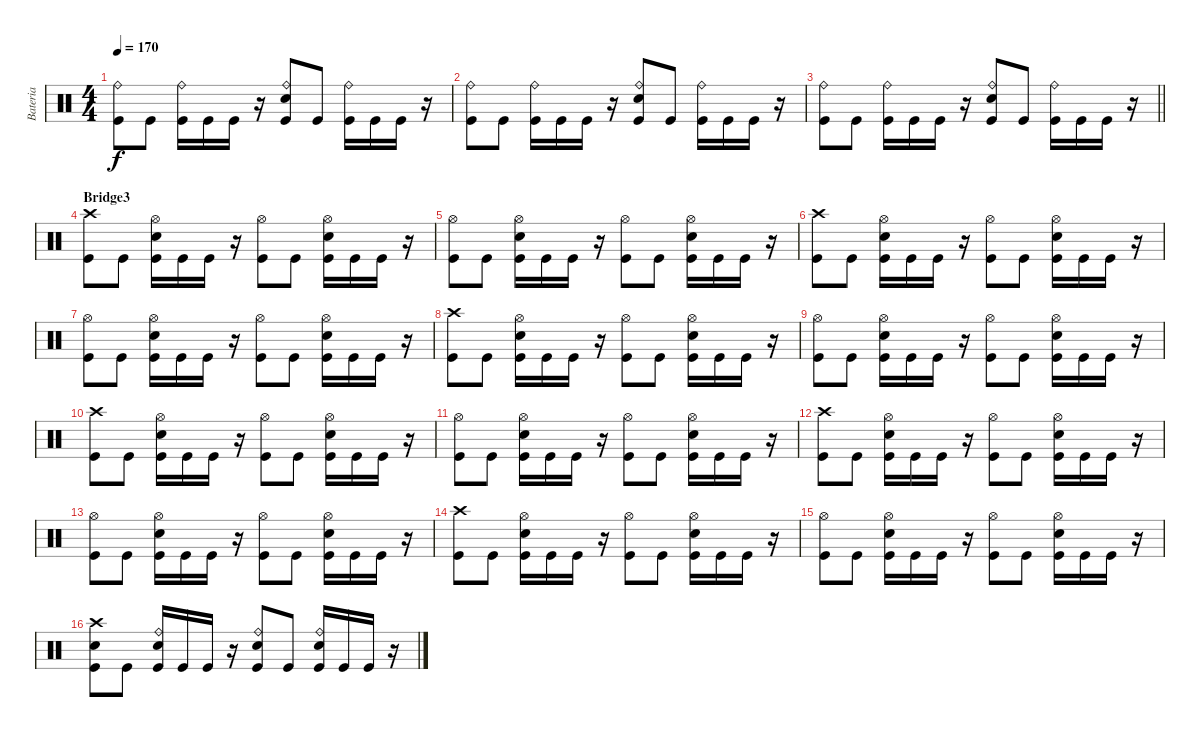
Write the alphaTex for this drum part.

\track ("Bateria" "Bateria") {instrument percussion}
\staff {score}
\articulation defaults
\ts (4 4)
\tempo 170
\clef neutral
\ks c
("Kick (hit)" "Ride (bell)").8{dy f} "Kick (hit)".8 ("Kick (hit)" "Ride (bell)").16 "Kick (hit)".16 "Kick (hit)".16 r.16 ("Snare (hit) 2" "Kick (hit)" "Ride (bell)").8 "Kick (hit)".8 ("Kick (hit)" "Ride (bell)").16 "Kick (hit)".16 "Kick (hit)".16 r.16 |
("Kick (hit)" "Ride (bell)").8 "Kick (hit)".8 ("Kick (hit)" "Ride (bell)").16 "Kick (hit)".16 "Kick (hit)".16 r.16 ("Snare (hit) 2" "Kick (hit)" "Ride (bell)").8 "Kick (hit)".8 ("Kick (hit)" "Ride (bell)").16 "Kick (hit)".16 "Kick (hit)".16 r.16 |
\barLineRight lightlight
("Kick (hit)" "Ride (bell)").8 "Kick (hit)".8 ("Kick (hit)" "Ride (bell)").16 "Kick (hit)".16 "Kick (hit)".16 r.16 ("Snare (hit) 2" "Kick (hit)" "Ride (bell)").8 "Kick (hit)".8 ("Kick (hit)" "Ride (bell)").16 "Kick (hit)".16 "Kick (hit)".16 r.16 |
\section ("" "Bridge3")
("Kick (hit)" "Crash high (hit)").8 "Kick (hit)".8 ("Snare (hit) 2" "Kick (hit)" "Hi-Hat (open)").16 "Kick (hit)".16 "Kick (hit)".16 r.16 ("Kick (hit)" "Hi-Hat (open)").8 "Kick (hit)".8 ("Snare (hit) 2" "Kick (hit)" "Hi-Hat (open)").16 "Kick (hit)".16 "Kick (hit)".16 r.16 |
("Kick (hit)" "Hi-Hat (open)").8 "Kick (hit)".8 ("Snare (hit) 2" "Kick (hit)" "Hi-Hat (open)").16 "Kick (hit)".16 "Kick (hit)".16 r.16 ("Kick (hit)" "Hi-Hat (open)").8 "Kick (hit)".8 ("Snare (hit) 2" "Kick (hit)" "Hi-Hat (open)").16 "Kick (hit)".16 "Kick (hit)".16 r.16 |
("Kick (hit)" "Crash high (hit)").8 "Kick (hit)".8 ("Snare (hit) 2" "Kick (hit)" "Hi-Hat (open)").16 "Kick (hit)".16 "Kick (hit)".16 r.16 ("Kick (hit)" "Hi-Hat (open)").8 "Kick (hit)".8 ("Snare (hit) 2" "Kick (hit)" "Hi-Hat (open)").16 "Kick (hit)".16 "Kick (hit)".16 r.16 |
("Kick (hit)" "Hi-Hat (open)").8 "Kick (hit)".8 ("Snare (hit) 2" "Kick (hit)" "Hi-Hat (open)").16 "Kick (hit)".16 "Kick (hit)".16 r.16 ("Kick (hit)" "Hi-Hat (open)").8 "Kick (hit)".8 ("Snare (hit) 2" "Kick (hit)" "Hi-Hat (open)").16 "Kick (hit)".16 "Kick (hit)".16 r.16 |
("Kick (hit)" "Crash high (hit)").8 "Kick (hit)".8 ("Snare (hit) 2" "Kick (hit)" "Hi-Hat (open)").16 "Kick (hit)".16 "Kick (hit)".16 r.16 ("Kick (hit)" "Hi-Hat (open)").8 "Kick (hit)".8 ("Snare (hit) 2" "Kick (hit)" "Hi-Hat (open)").16 "Kick (hit)".16 "Kick (hit)".16 r.16 |
("Kick (hit)" "Hi-Hat (open)").8 "Kick (hit)".8 ("Snare (hit) 2" "Kick (hit)" "Hi-Hat (open)").16 "Kick (hit)".16 "Kick (hit)".16 r.16 ("Kick (hit)" "Hi-Hat (open)").8 "Kick (hit)".8 ("Snare (hit) 2" "Kick (hit)" "Hi-Hat (open)").16 "Kick (hit)".16 "Kick (hit)".16 r.16 |
("Kick (hit)" "Crash high (hit)").8 "Kick (hit)".8 ("Snare (hit) 2" "Kick (hit)" "Hi-Hat (open)").16 "Kick (hit)".16 "Kick (hit)".16 r.16 ("Kick (hit)" "Hi-Hat (open)").8 "Kick (hit)".8 ("Snare (hit) 2" "Kick (hit)" "Hi-Hat (open)").16 "Kick (hit)".16 "Kick (hit)".16 r.16 |
("Kick (hit)" "Hi-Hat (open)").8 "Kick (hit)".8 ("Snare (hit) 2" "Kick (hit)" "Hi-Hat (open)").16 "Kick (hit)".16 "Kick (hit)".16 r.16 ("Kick (hit)" "Hi-Hat (open)").8 "Kick (hit)".8 ("Snare (hit) 2" "Kick (hit)" "Hi-Hat (open)").16 "Kick (hit)".16 "Kick (hit)".16 r.16 |
("Kick (hit)" "Crash high (hit)").8 "Kick (hit)".8 ("Snare (hit) 2" "Kick (hit)" "Hi-Hat (open)").16 "Kick (hit)".16 "Kick (hit)".16 r.16 ("Kick (hit)" "Hi-Hat (open)").8 "Kick (hit)".8 ("Snare (hit) 2" "Kick (hit)" "Hi-Hat (open)").16 "Kick (hit)".16 "Kick (hit)".16 r.16 |
("Kick (hit)" "Hi-Hat (open)").8 "Kick (hit)".8 ("Snare (hit) 2" "Kick (hit)" "Hi-Hat (open)").16 "Kick (hit)".16 "Kick (hit)".16 r.16 ("Kick (hit)" "Hi-Hat (open)").8 "Kick (hit)".8 ("Snare (hit) 2" "Kick (hit)" "Hi-Hat (open)").16 "Kick (hit)".16 "Kick (hit)".16 r.16 |
("Kick (hit)" "Crash high (hit)").8 "Kick (hit)".8 ("Snare (hit) 2" "Kick (hit)" "Hi-Hat (open)").16 "Kick (hit)".16 "Kick (hit)".16 r.16 ("Kick (hit)" "Hi-Hat (open)").8 "Kick (hit)".8 ("Snare (hit) 2" "Kick (hit)" "Hi-Hat (open)").16 "Kick (hit)".16 "Kick (hit)".16 r.16 |
("Kick (hit)" "Hi-Hat (open)").8 "Kick (hit)".8 ("Snare (hit) 2" "Kick (hit)" "Hi-Hat (open)").16 "Kick (hit)".16 "Kick (hit)".16 r.16 ("Kick (hit)" "Hi-Hat (open)").8 "Kick (hit)".8 ("Snare (hit) 2" "Kick (hit)" "Hi-Hat (open)").16 "Kick (hit)".16 "Kick (hit)".16 r.16 |
("Snare (hit) 2" "Kick (hit)" "Crash high (hit)").8 "Kick (hit)".8 ("Snare (hit) 2" "Kick (hit)" "Ride (bell)").16 "Kick (hit)".16 "Kick (hit)".16 r.16 ("Snare (hit) 2" "Kick (hit)" "Ride (bell)").8 "Kick (hit)".8 ("Snare (hit) 2" "Kick (hit)" "Ride (bell)").16 "Kick (hit)".16 "Kick (hit)".16 r.16
